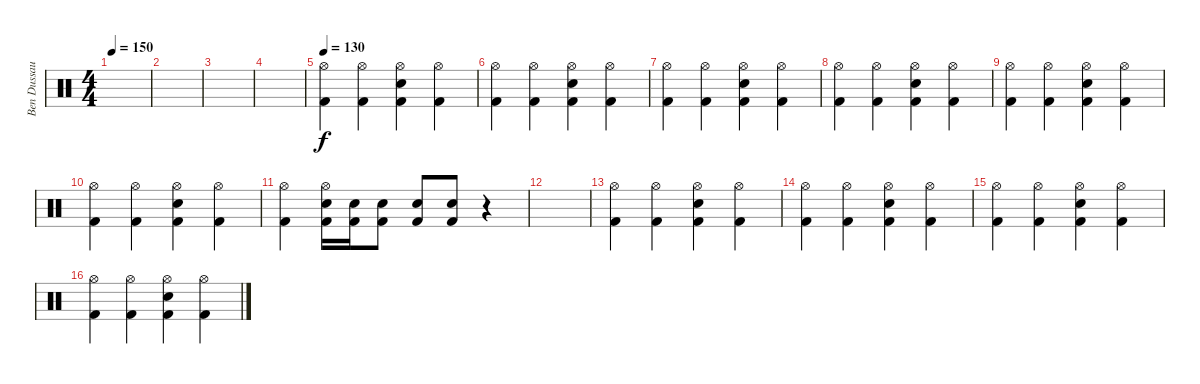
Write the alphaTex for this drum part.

\track ("Ben Dussault" "Ben Dussau") {instrument percussion}
\staff {score}
\articulation defaults
\ts (4 4)
\tempo 150
\clef neutral
\ks c
|
|
|
|
\tempo 130
("Hi-Hat (open)" "Kick (hit) 2").4{dy f} ("Hi-Hat (open)" "Kick (hit) 2").4 ("Hi-Hat (open)" "Snare (hit) 2" "Kick (hit) 2").4 ("Hi-Hat (open)" "Kick (hit) 2").4 |
("Hi-Hat (open)" "Kick (hit) 2").4 ("Hi-Hat (open)" "Kick (hit) 2").4 ("Hi-Hat (open)" "Snare (hit) 2" "Kick (hit) 2").4 ("Hi-Hat (open)" "Kick (hit) 2").4 |
("Hi-Hat (open)" "Kick (hit) 2").4 ("Hi-Hat (open)" "Kick (hit) 2").4 ("Hi-Hat (open)" "Snare (hit) 2" "Kick (hit) 2").4 ("Hi-Hat (open)" "Kick (hit) 2").4 |
("Hi-Hat (open)" "Kick (hit) 2").4 ("Hi-Hat (open)" "Kick (hit) 2").4 ("Hi-Hat (open)" "Snare (hit) 2" "Kick (hit) 2").4 ("Hi-Hat (open)" "Kick (hit) 2").4 |
("Hi-Hat (open)" "Kick (hit) 2").4 ("Hi-Hat (open)" "Kick (hit) 2").4 ("Hi-Hat (open)" "Snare (hit) 2" "Kick (hit) 2").4 ("Hi-Hat (open)" "Kick (hit) 2").4 |
("Hi-Hat (open)" "Kick (hit) 2").4 ("Hi-Hat (open)" "Kick (hit) 2").4 ("Hi-Hat (open)" "Snare (hit) 2" "Kick (hit) 2").4 ("Hi-Hat (open)" "Kick (hit) 2").4 |
("Hi-Hat (open)" "Kick (hit) 2").4 ("Hi-Hat (open)" "Snare (hit) 2" "Kick (hit) 2").16 ("Snare (hit) 2" "Kick (hit) 2").16 ("Snare (hit) 2" "Kick (hit) 2").8 ("Snare (hit) 2" "Kick (hit) 2").8 ("Snare (hit) 2" "Kick (hit) 2").8 r.4 |
|
("Hi-Hat (open)" "Kick (hit) 2").4 ("Hi-Hat (open)" "Kick (hit) 2").4 ("Hi-Hat (open)" "Snare (hit) 2" "Kick (hit) 2").4 ("Hi-Hat (open)" "Kick (hit) 2").4 |
("Hi-Hat (open)" "Kick (hit) 2").4 ("Hi-Hat (open)" "Kick (hit) 2").4 ("Hi-Hat (open)" "Snare (hit) 2" "Kick (hit) 2").4 ("Hi-Hat (open)" "Kick (hit) 2").4 |
("Hi-Hat (open)" "Kick (hit) 2").4 ("Hi-Hat (open)" "Kick (hit) 2").4 ("Hi-Hat (open)" "Snare (hit) 2" "Kick (hit) 2").4 ("Hi-Hat (open)" "Kick (hit) 2").4 |
("Hi-Hat (open)" "Kick (hit) 2").4 ("Hi-Hat (open)" "Kick (hit) 2").4 ("Hi-Hat (open)" "Snare (hit) 2" "Kick (hit) 2").4 ("Hi-Hat (open)" "Kick (hit) 2").4
